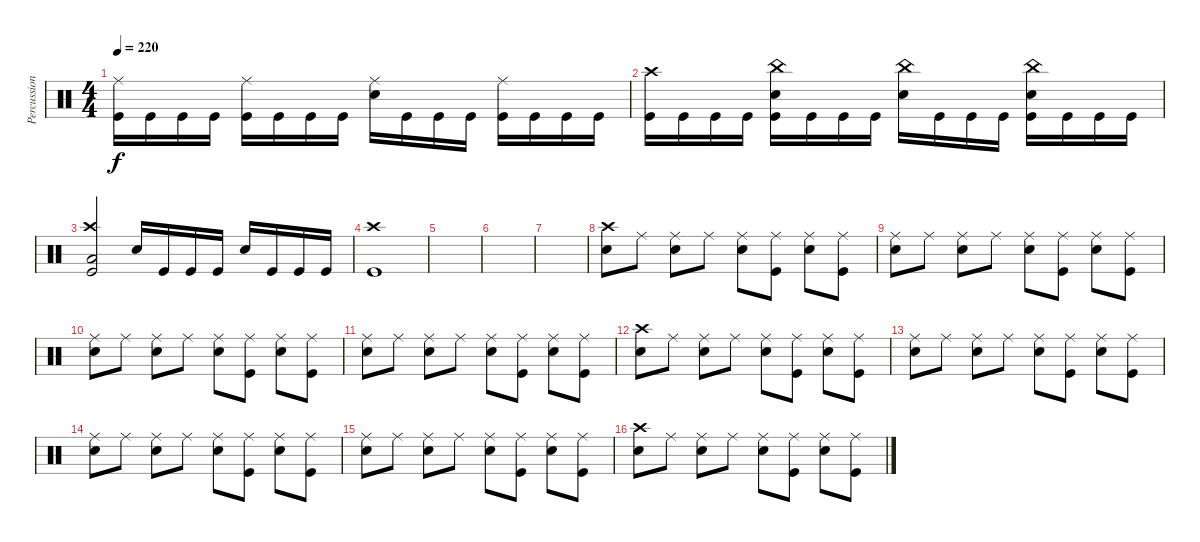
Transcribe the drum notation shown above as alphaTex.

\track ("Percussions" "Percussion") {instrument percussion}
\staff {score}
\articulation defaults
\ts (4 4)
\tempo 220
\clef neutral
\ks c
("Ride (middle)" "Kick (hit)").16{dy f} "Kick (hit)".16 "Kick (hit)".16 "Kick (hit)".16 ("Ride (middle)" "Kick (hit)").16 "Kick (hit)".16 "Kick (hit)".16 "Kick (hit)".16 ("Ride (middle)" "Electric Snare (hit)").16 "Kick (hit)".16 "Kick (hit)".16 "Kick (hit)".16 ("Ride (middle)" "Kick (hit)").16 "Kick (hit)".16 "Kick (hit)".16 "Kick (hit)".16 |
("Crash high (hit)" "Kick (hit)").16 "Kick (hit)".16 "Kick (hit)".16 "Kick (hit)".16 ("China (hit)" "Electric Snare (hit)" "Kick (hit)").16 "Kick (hit)".16 "Kick (hit)".16 "Kick (hit)".16 ("China (hit)" "Electric Snare (hit)").16 "Kick (hit)".16 "Kick (hit)".16 "Kick (hit)".16 ("China (hit)" "Electric Snare (hit)" "Kick (hit)").16 "Kick (hit)".16 "Kick (hit)".16 "Kick (hit)".16 |
("Crash high (hit)" "Low Tom (hit)" "Kick (hit)").2 "Electric Snare (hit)".16 "Kick (hit)".16 "Kick (hit)".16 "Kick (hit)".16 "Electric Snare (hit)".16 "Kick (hit)".16 "Kick (hit)".16 "Kick (hit)".16 |
("Crash high (hit)" "Kick (hit)").1 |
|
|
|
("Crash high (hit)" "Electric Snare (hit)").8 "Ride (middle)".8 ("Ride (middle)" "Electric Snare (hit)").8 "Ride (middle)".8 ("Ride (middle)" "Electric Snare (hit)").8 ("Ride (middle)" "Kick (hit)").8 ("Ride (middle)" "Electric Snare (hit)").8 ("Ride (middle)" "Kick (hit)").8 |
("Ride (middle)" "Electric Snare (hit)").8 "Ride (middle)".8 ("Ride (middle)" "Electric Snare (hit)").8 "Ride (middle)".8 ("Ride (middle)" "Electric Snare (hit)").8 ("Ride (middle)" "Kick (hit)").8 ("Ride (middle)" "Electric Snare (hit)").8 ("Ride (middle)" "Kick (hit)").8 |
("Ride (middle)" "Electric Snare (hit)").8 "Ride (middle)".8 ("Ride (middle)" "Electric Snare (hit)").8 "Ride (middle)".8 ("Ride (middle)" "Electric Snare (hit)").8 ("Ride (middle)" "Kick (hit)").8 ("Ride (middle)" "Electric Snare (hit)").8 ("Ride (middle)" "Kick (hit)").8 |
("Ride (middle)" "Electric Snare (hit)").8 "Ride (middle)".8 ("Ride (middle)" "Electric Snare (hit)").8 "Ride (middle)".8 ("Ride (middle)" "Electric Snare (hit)").8 ("Ride (middle)" "Kick (hit)").8 ("Ride (middle)" "Electric Snare (hit)").8 ("Ride (middle)" "Kick (hit)").8 |
("Crash high (hit)" "Electric Snare (hit)").8 "Ride (middle)".8 ("Ride (middle)" "Electric Snare (hit)").8 "Ride (middle)".8 ("Ride (middle)" "Electric Snare (hit)").8 ("Ride (middle)" "Kick (hit)").8 ("Ride (middle)" "Electric Snare (hit)").8 ("Ride (middle)" "Kick (hit)").8 |
("Ride (middle)" "Electric Snare (hit)").8 "Ride (middle)".8 ("Ride (middle)" "Electric Snare (hit)").8 "Ride (middle)".8 ("Ride (middle)" "Electric Snare (hit)").8 ("Ride (middle)" "Kick (hit)").8 ("Ride (middle)" "Electric Snare (hit)").8 ("Ride (middle)" "Kick (hit)").8 |
("Ride (middle)" "Electric Snare (hit)").8 "Ride (middle)".8 ("Ride (middle)" "Electric Snare (hit)").8 "Ride (middle)".8 ("Ride (middle)" "Electric Snare (hit)").8 ("Ride (middle)" "Kick (hit)").8 ("Ride (middle)" "Electric Snare (hit)").8 ("Ride (middle)" "Kick (hit)").8 |
("Ride (middle)" "Electric Snare (hit)").8 "Ride (middle)".8 ("Ride (middle)" "Electric Snare (hit)").8 "Ride (middle)".8 ("Ride (middle)" "Electric Snare (hit)").8 ("Ride (middle)" "Kick (hit)").8 ("Ride (middle)" "Electric Snare (hit)").8 ("Ride (middle)" "Kick (hit)").8 |
("Crash high (hit)" "Electric Snare (hit)").8 "Ride (middle)".8 ("Ride (middle)" "Electric Snare (hit)").8 "Ride (middle)".8 ("Ride (middle)" "Electric Snare (hit)").8 ("Ride (middle)" "Kick (hit)").8 ("Ride (middle)" "Electric Snare (hit)").8 ("Ride (middle)" "Kick (hit)").8
